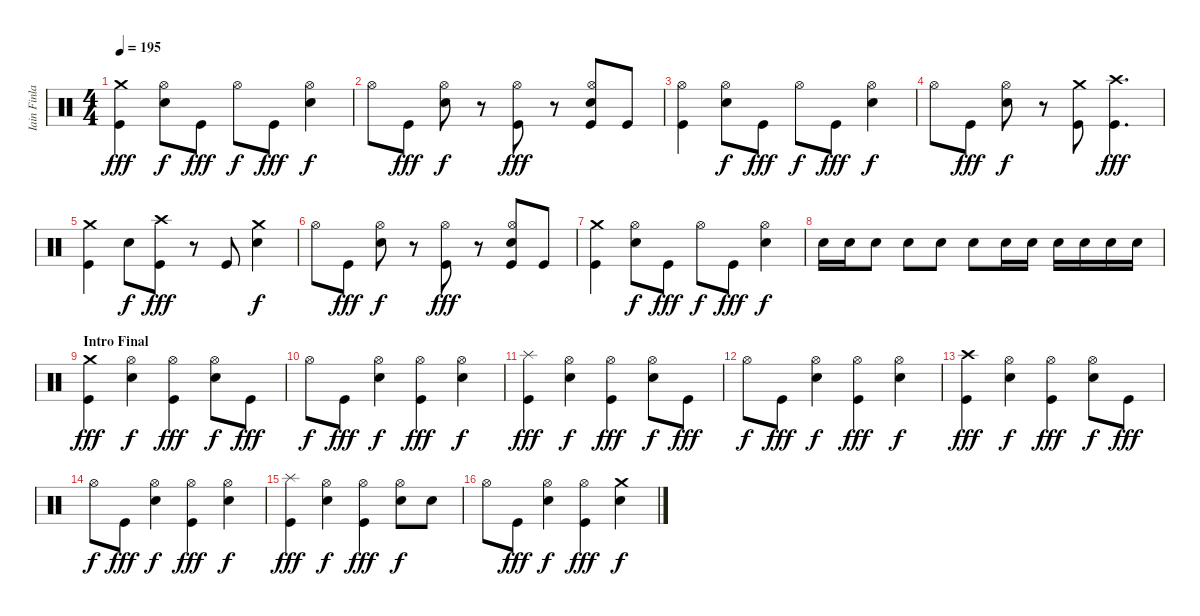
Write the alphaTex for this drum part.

\track ("Iain Finlay (Batería)" "Iain Finla") {instrument percussion}
\staff {score}
\articulation defaults
\ts (4 4)
\tempo 195
\clef neutral
\ks c
("Crash medium (hit)" "Kick (hit)").4{dy fff} ("Hi-Hat (open)" "Electric Snare (hit)").8{dy f} "Kick (hit)".8{dy fff} "Hi-Hat (open)".8{dy f} "Kick (hit)".8{dy fff} ("Hi-Hat (open)" "Electric Snare (hit)").4{dy f} |
"Hi-Hat (open)".8 "Kick (hit)".8{dy fff} ("Hi-Hat (open)" "Electric Snare (hit)").8{dy f} r.8 ("Hi-Hat (open)" "Kick (hit)").8{dy fff} r.8 ("Hi-Hat (open)" "Electric Snare (hit)" "Kick (hit)").8 "Kick (hit)".8 |
("Hi-Hat (open)" "Kick (hit)").4 ("Hi-Hat (open)" "Electric Snare (hit)").8{dy f} "Kick (hit)".8{dy fff} "Hi-Hat (open)".8{dy f} "Kick (hit)".8{dy fff} ("Hi-Hat (open)" "Electric Snare (hit)").4{dy f} |
"Hi-Hat (open)".8 "Kick (hit)".8{dy fff} ("Hi-Hat (open)" "Electric Snare (hit)").8{dy f} r.8 ("Crash medium (hit)" "Kick (hit)").8 ("Crash high (hit)" "Kick (hit)").4{d dy fff} |
("Crash medium (hit)" "Kick (hit)").4 "Electric Snare (hit)".8{dy f} ("Crash high (hit)" "Kick (hit)").8{dy fff} r.8 "Kick (hit)".8 ("Crash medium (hit)" "Electric Snare (hit)").4{dy f} |
"Hi-Hat (open)".8 "Kick (hit)".8{dy fff} ("Hi-Hat (open)" "Electric Snare (hit)").8{dy f} r.8 ("Hi-Hat (open)" "Kick (hit)").8{dy fff} r.8 ("Hi-Hat (open)" "Electric Snare (hit)" "Kick (hit)").8 "Kick (hit)".8 |
("Crash medium (hit)" "Kick (hit)").4 ("Hi-Hat (open)" "Electric Snare (hit)").8{dy f} "Kick (hit)".8{dy fff} "Hi-Hat (open)".8{dy f} "Kick (hit)".8{dy fff} ("Hi-Hat (open)" "Electric Snare (hit)").4{dy f} |
"Electric Snare (hit)".16 "Electric Snare (hit)".16 "Electric Snare (hit)".8 "Electric Snare (hit)".8 "Electric Snare (hit)".8 "Electric Snare (hit)".8 "Electric Snare (hit)".16 "Electric Snare (hit)".16 "Electric Snare (hit)".16 "Electric Snare (hit)".16 "Electric Snare (hit)".16 "Electric Snare (hit)".16 |
\section ("" "Intro Final")
("Crash medium (hit)" "Kick (hit)").4{dy fff} ("Hi-Hat (open)" "Electric Snare (hit)").4{dy f} ("Hi-Hat (open)" "Kick (hit)").4{dy fff} ("Hi-Hat (open)" "Electric Snare (hit)").8{dy f} "Kick (hit)".8{dy fff} |
"Hi-Hat (open)".8{dy f} "Kick (hit)".8{dy fff} ("Hi-Hat (open)" "Electric Snare (hit)").4{dy f} ("Hi-Hat (open)" "Kick (hit)").4{dy fff} ("Hi-Hat (open)" "Electric Snare (hit)").4{dy f} |
("Splash (hit)" "Kick (hit)").4{dy fff} ("Hi-Hat (open)" "Electric Snare (hit)").4{dy f} ("Hi-Hat (open)" "Kick (hit)").4{dy fff} ("Hi-Hat (open)" "Electric Snare (hit)").8{dy f} "Kick (hit)".8{dy fff} |
"Hi-Hat (open)".8{dy f} "Kick (hit)".8{dy fff} ("Hi-Hat (open)" "Electric Snare (hit)").4{dy f} ("Hi-Hat (open)" "Kick (hit)").4{dy fff} ("Hi-Hat (open)" "Electric Snare (hit)").4{dy f} |
("Crash high (hit)" "Kick (hit)").4{dy fff} ("Hi-Hat (open)" "Electric Snare (hit)").4{dy f} ("Hi-Hat (open)" "Kick (hit)").4{dy fff} ("Hi-Hat (open)" "Electric Snare (hit)").8{dy f} "Kick (hit)".8{dy fff} |
"Hi-Hat (open)".8{dy f} "Kick (hit)".8{dy fff} ("Hi-Hat (open)" "Electric Snare (hit)").4{dy f} ("Hi-Hat (open)" "Kick (hit)").4{dy fff} ("Hi-Hat (open)" "Electric Snare (hit)").4{dy f} |
("Splash (hit)" "Kick (hit)").4{dy fff} ("Hi-Hat (open)" "Electric Snare (hit)").4{dy f} ("Hi-Hat (open)" "Kick (hit)").4{dy fff} ("Hi-Hat (open)" "Electric Snare (hit)").8{dy f} "Electric Snare (hit)".8 |
"Hi-Hat (open)".8 "Kick (hit)".8{dy fff} ("Hi-Hat (open)" "Electric Snare (hit)").4{dy f} ("Hi-Hat (open)" "Kick (hit)").4{dy fff} ("Crash medium (hit)" "Electric Snare (hit)").4{dy f}
